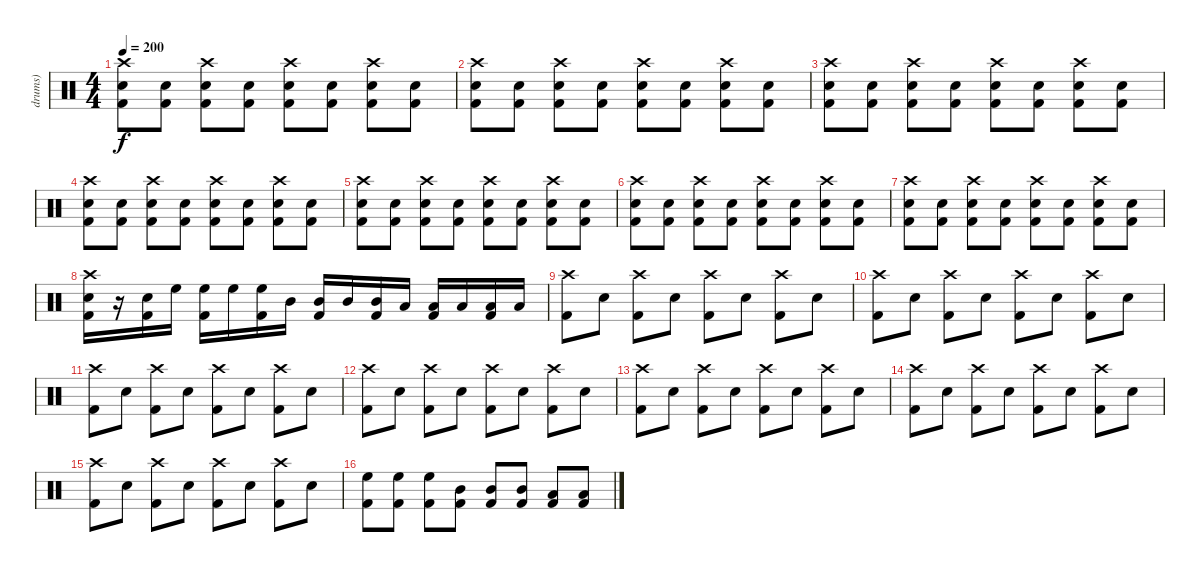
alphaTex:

\track ("drums)" "drums)") {instrument percussion}
\staff {score}
\articulation defaults
\ts (4 4)
\tempo 200
\clef neutral
\ks c
("Crash high (hit)" "Electric Snare (hit)" "Kick (hit) 2").8{dy f} ("Electric Snare (hit)" "Kick (hit) 2").8 ("Crash high (hit)" "Electric Snare (hit)" "Kick (hit) 2").8 ("Electric Snare (hit)" "Kick (hit) 2").8 ("Crash high (hit)" "Electric Snare (hit)" "Kick (hit) 2").8 ("Electric Snare (hit)" "Kick (hit) 2").8 ("Crash high (hit)" "Electric Snare (hit)" "Kick (hit) 2").8 ("Electric Snare (hit)" "Kick (hit) 2").8 |
("Crash high (hit)" "Electric Snare (hit)" "Kick (hit) 2").8 ("Electric Snare (hit)" "Kick (hit) 2").8 ("Crash high (hit)" "Electric Snare (hit)" "Kick (hit) 2").8 ("Electric Snare (hit)" "Kick (hit) 2").8 ("Crash high (hit)" "Electric Snare (hit)" "Kick (hit) 2").8 ("Electric Snare (hit)" "Kick (hit) 2").8 ("Crash high (hit)" "Electric Snare (hit)" "Kick (hit) 2").8 ("Electric Snare (hit)" "Kick (hit) 2").8 |
("Crash high (hit)" "Electric Snare (hit)" "Kick (hit) 2").8 ("Electric Snare (hit)" "Kick (hit) 2").8 ("Crash high (hit)" "Electric Snare (hit)" "Kick (hit) 2").8 ("Electric Snare (hit)" "Kick (hit) 2").8 ("Crash high (hit)" "Electric Snare (hit)" "Kick (hit) 2").8 ("Electric Snare (hit)" "Kick (hit) 2").8 ("Crash high (hit)" "Electric Snare (hit)" "Kick (hit) 2").8 ("Electric Snare (hit)" "Kick (hit) 2").8 |
("Crash high (hit)" "Electric Snare (hit)" "Kick (hit) 2").8 ("Electric Snare (hit)" "Kick (hit) 2").8 ("Crash high (hit)" "Electric Snare (hit)" "Kick (hit) 2").8 ("Electric Snare (hit)" "Kick (hit) 2").8 ("Crash high (hit)" "Electric Snare (hit)" "Kick (hit) 2").8 ("Electric Snare (hit)" "Kick (hit) 2").8 ("Crash high (hit)" "Electric Snare (hit)" "Kick (hit) 2").8 ("Electric Snare (hit)" "Kick (hit) 2").8 |
("Crash high (hit)" "Electric Snare (hit)" "Kick (hit) 2").8 ("Electric Snare (hit)" "Kick (hit) 2").8 ("Crash high (hit)" "Electric Snare (hit)" "Kick (hit) 2").8 ("Electric Snare (hit)" "Kick (hit) 2").8 ("Crash high (hit)" "Electric Snare (hit)" "Kick (hit) 2").8 ("Electric Snare (hit)" "Kick (hit) 2").8 ("Crash high (hit)" "Electric Snare (hit)" "Kick (hit) 2").8 ("Electric Snare (hit)" "Kick (hit) 2").8 |
("Crash high (hit)" "Electric Snare (hit)" "Kick (hit) 2").8 ("Electric Snare (hit)" "Kick (hit) 2").8 ("Crash high (hit)" "Electric Snare (hit)" "Kick (hit) 2").8 ("Electric Snare (hit)" "Kick (hit) 2").8 ("Crash high (hit)" "Electric Snare (hit)" "Kick (hit) 2").8 ("Electric Snare (hit)" "Kick (hit) 2").8 ("Crash high (hit)" "Electric Snare (hit)" "Kick (hit) 2").8 ("Electric Snare (hit)" "Kick (hit) 2").8 |
("Crash high (hit)" "Electric Snare (hit)" "Kick (hit) 2").8 ("Electric Snare (hit)" "Kick (hit) 2").8 ("Crash high (hit)" "Electric Snare (hit)" "Kick (hit) 2").8 ("Electric Snare (hit)" "Kick (hit) 2").8 ("Crash high (hit)" "Electric Snare (hit)" "Kick (hit) 2").8 ("Electric Snare (hit)" "Kick (hit) 2").8 ("Crash high (hit)" "Electric Snare (hit)" "Kick (hit) 2").8 ("Electric Snare (hit)" "Kick (hit) 2").8 |
("Crash high (hit)" "Electric Snare (hit)" "Kick (hit) 2").16 r.16 ("Electric Snare (hit)" "Kick (hit) 2").16 "High Floor Tom (hit)".16 ("High Floor Tom (hit)" "Kick (hit) 2").16 "High Floor Tom (hit)".16 ("High Floor Tom (hit)" "Kick (hit) 2").16 "Mid Tom (hit)".16 ("Mid Tom (hit)" "Kick (hit) 2").16 "Mid Tom (hit)".16 ("Mid Tom (hit)" "Kick (hit) 2").16 "Low Floor Tom (hit)".16 ("Low Floor Tom (hit)" "Kick (hit) 2").16 "Low Floor Tom (hit)".16 ("Low Floor Tom (hit)" "Kick (hit) 2").16 "Low Floor Tom (hit)".16 |
("Crash high (hit)" "Kick (hit) 2").8 "Electric Snare (hit)".8 ("Crash high (hit)" "Kick (hit) 2").8 "Electric Snare (hit)".8 ("Crash high (hit)" "Kick (hit) 2").8 "Electric Snare (hit)".8 ("Crash high (hit)" "Kick (hit) 2").8 "Electric Snare (hit)".8 |
("Crash high (hit)" "Kick (hit) 2").8 "Electric Snare (hit)".8 ("Crash high (hit)" "Kick (hit) 2").8 "Electric Snare (hit)".8 ("Crash high (hit)" "Kick (hit) 2").8 "Electric Snare (hit)".8 ("Crash high (hit)" "Kick (hit) 2").8 "Electric Snare (hit)".8 |
("Crash high (hit)" "Kick (hit) 2").8 "Electric Snare (hit)".8 ("Crash high (hit)" "Kick (hit) 2").8 "Electric Snare (hit)".8 ("Crash high (hit)" "Kick (hit) 2").8 "Electric Snare (hit)".8 ("Crash high (hit)" "Kick (hit) 2").8 "Electric Snare (hit)".8 |
("Crash high (hit)" "Kick (hit) 2").8 "Electric Snare (hit)".8 ("Crash high (hit)" "Kick (hit) 2").8 "Electric Snare (hit)".8 ("Crash high (hit)" "Kick (hit) 2").8 "Electric Snare (hit)".8 ("Crash high (hit)" "Kick (hit) 2").8 "Electric Snare (hit)".8 |
("Crash high (hit)" "Kick (hit) 2").8 "Electric Snare (hit)".8 ("Crash high (hit)" "Kick (hit) 2").8 "Electric Snare (hit)".8 ("Crash high (hit)" "Kick (hit) 2").8 "Electric Snare (hit)".8 ("Crash high (hit)" "Kick (hit) 2").8 "Electric Snare (hit)".8 |
("Crash high (hit)" "Kick (hit) 2").8 "Electric Snare (hit)".8 ("Crash high (hit)" "Kick (hit) 2").8 "Electric Snare (hit)".8 ("Crash high (hit)" "Kick (hit) 2").8 "Electric Snare (hit)".8 ("Crash high (hit)" "Kick (hit) 2").8 "Electric Snare (hit)".8 |
("Crash high (hit)" "Kick (hit) 2").8 "Electric Snare (hit)".8 ("Crash high (hit)" "Kick (hit) 2").8 "Electric Snare (hit)".8 ("Crash high (hit)" "Kick (hit) 2").8 "Electric Snare (hit)".8 ("Crash high (hit)" "Kick (hit) 2").8 "Electric Snare (hit)".8 |
("High Floor Tom (hit)" "Kick (hit) 2").8 ("High Floor Tom (hit)" "Kick (hit) 2").8 ("High Floor Tom (hit)" "Kick (hit) 2").8 ("Mid Tom (hit)" "Kick (hit) 2").8 ("Mid Tom (hit)" "Kick (hit) 2").8 ("Mid Tom (hit)" "Kick (hit) 2").8 ("Low Floor Tom (hit)" "Kick (hit) 2").8 ("Low Floor Tom (hit)" "Kick (hit) 2").8
